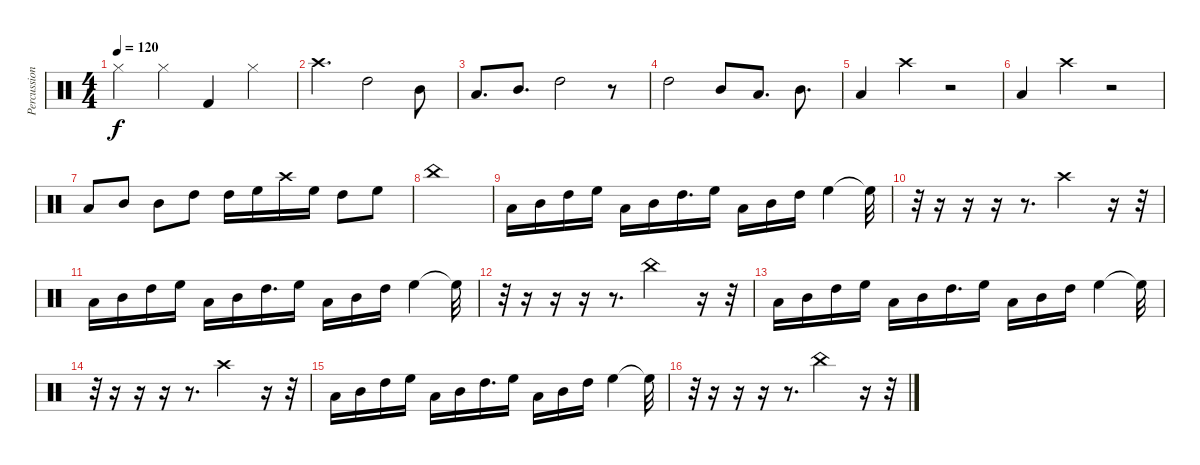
\track ("Percussion" "Percussion") {instrument percussion}
\staff {score}
\articulation defaults
\ts (4 4)
\tempo 120
\clef neutral
\ks c "Hi-Hat (closed)".4{dy f} "Hi-Hat (closed)".4 "Kick (hit) 2".4 "Hi-Hat (closed)".4
|
"Crash high (hit)".4{d} "High Tom (hit)".2 "Mid Tom (hit)".8 |
"Low Tom (hit)".8{d} "Mid Tom (hit)".8{d} "High Tom (hit)".2 r.8 |
"High Tom (hit)".2 "Mid Tom (hit)".8 "Low Tom (hit)".8{d} "Mid Tom (hit)".8{d} |
"Low Tom (hit)".4 "Crash high (hit)".4 r.2 |
"Low Tom (hit)".4 "Crash high (hit)".4 r.2 |
"Low Tom (hit)".8 "Mid Tom (hit)".8 "Mid Tom (hit)".8 "High Tom (hit)".8 "High Tom (hit)".16 "High Floor Tom (hit)".16 "Crash high (hit)".16 "High Floor Tom (hit)".16 "High Tom (hit)".8 "High Floor Tom (hit)".8 |
"China (hit)".1 |
"Low Tom (hit)".16 "Mid Tom (hit)".16 "High Tom (hit)".16 "High Floor Tom (hit)".16 "Low Tom (hit)".16 "Mid Tom (hit)".16 "High Tom (hit)".16{d} "High Floor Tom (hit)".16 "Low Tom (hit)".16 "Mid Tom (hit)".16 "High Tom (hit)".16 "High Floor Tom (hit)".4 "High Floor Tom (hit)"{t}.32 |
r.32 r.16 r.16 r.16 r.8{d} "Crash high (hit)".2 r.16 r.32 |
"Low Tom (hit)".16 "Mid Tom (hit)".16 "High Tom (hit)".16 "High Floor Tom (hit)".16 "Low Tom (hit)".16 "Mid Tom (hit)".16 "High Tom (hit)".16{d} "High Floor Tom (hit)".16 "Low Tom (hit)".16 "Mid Tom (hit)".16 "High Tom (hit)".16 "High Floor Tom (hit)".4 "High Floor Tom (hit)"{t}.32 |
r.32 r.16 r.16 r.16 r.8{d} "China (hit)".2 r.16 r.32 |
"Low Tom (hit)".16 "Mid Tom (hit)".16 "High Tom (hit)".16 "High Floor Tom (hit)".16 "Low Tom (hit)".16 "Mid Tom (hit)".16 "High Tom (hit)".16{d} "High Floor Tom (hit)".16 "Low Tom (hit)".16 "Mid Tom (hit)".16 "High Tom (hit)".16 "High Floor Tom (hit)".4 "High Floor Tom (hit)"{t}.32 |
r.32 r.16 r.16 r.16 r.8{d} "Crash high (hit)".2 r.16 r.32 |
"Low Tom (hit)".16 "Mid Tom (hit)".16 "High Tom (hit)".16 "High Floor Tom (hit)".16 "Low Tom (hit)".16 "Mid Tom (hit)".16 "High Tom (hit)".16{d} "High Floor Tom (hit)".16 "Low Tom (hit)".16 "Mid Tom (hit)".16 "High Tom (hit)".16 "High Floor Tom (hit)".4 "High Floor Tom (hit)"{t}.32 |
r.32 r.16 r.16 r.16 r.8{d} "China (hit)".2 r.16 r.32
